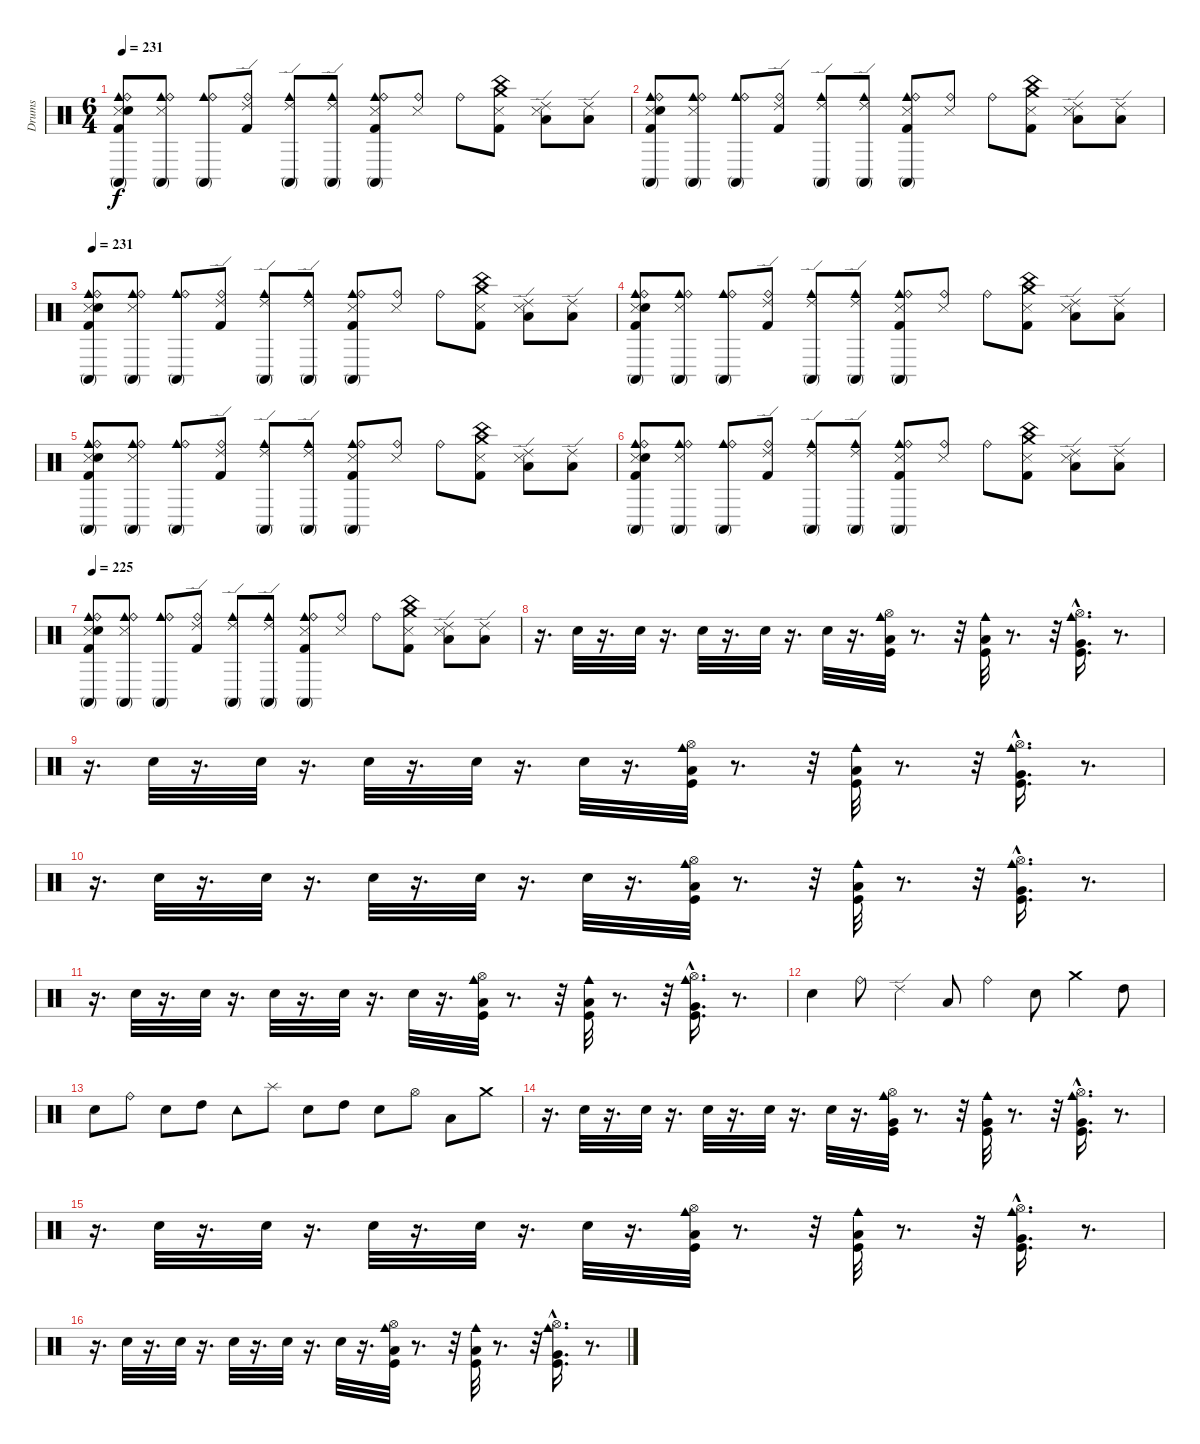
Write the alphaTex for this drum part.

\track ("Drums" "Drums") {instrument percussion}
\staff {score}
\articulation defaults
\ts (6 4)
\tempo 231
\clef neutral
\ks c
("Conga high (mute)" "Kick (hit) 2" "Snare (side stick) 3" "Snare (hit) 2" "Cowbell medium (hit)" "Ride (bell)").8{dy f} ("Snare (side stick) 3" "Cowbell medium (hit)" "Conga high (mute)" "Ride (bell)").8 ("Cowbell medium (hit)" "Conga high (mute)" "Ride (bell)").8 ("Ride (edge) 2" "Kick (hit) 2" "Ride (bell)").8 ("Conga high (mute)" "Ride (edge) 2" "Cowbell medium (hit)").8 ("Cowbell medium (hit)" "Conga high (mute)" "Ride (edge) 2").8 ("Cowbell medium (hit)" "Conga high (mute)" "Kick (hit) 2" "Snare (side stick) 3" "Ride (bell)").8 ("Snare (side stick) 3" "Ride (bell)").8 "Ride (bell)".8 ("China (hit)" "Crash medium (hit)" "Kick (hit) 2" "Snare (side stick) 3").8 ("Ride (edge) 2" "Low Tom (hit)" "Snare (side stick) 3").8 ("Ride (edge) 2" "Low Tom (hit)").8 |
("Conga high (mute)" "Kick (hit) 2" "Snare (side stick) 3" "Snare (hit) 2" "Cowbell medium (hit)" "Ride (bell)").8 ("Snare (side stick) 3" "Cowbell medium (hit)" "Conga high (mute)" "Ride (bell)").8 ("Cowbell medium (hit)" "Conga high (mute)" "Ride (bell)").8 ("Ride (edge) 2" "Kick (hit) 2" "Ride (bell)").8 ("Conga high (mute)" "Ride (edge) 2" "Cowbell medium (hit)").8 ("Cowbell medium (hit)" "Conga high (mute)" "Ride (edge) 2").8 ("Cowbell medium (hit)" "Conga high (mute)" "Kick (hit) 2" "Snare (side stick) 3" "Ride (bell)").8 ("Snare (side stick) 3" "Ride (bell)").8 "Ride (bell)".8 ("China (hit)" "Crash medium (hit)" "Kick (hit) 2" "Snare (side stick) 3").8 ("Ride (edge) 2" "Low Tom (hit)" "Snare (side stick) 3").8 ("Ride (edge) 2" "Low Tom (hit)").8 |
\tempo 231
("Conga high (mute)" "Kick (hit) 2" "Snare (side stick) 3" "Snare (hit) 2" "Cowbell medium (hit)" "Ride (bell)").8 ("Snare (side stick) 3" "Cowbell medium (hit)" "Conga high (mute)" "Ride (bell)").8 ("Cowbell medium (hit)" "Conga high (mute)" "Ride (bell)").8 ("Ride (edge) 2" "Kick (hit) 2" "Ride (bell)").8 ("Conga high (mute)" "Ride (edge) 2" "Cowbell medium (hit)").8 ("Cowbell medium (hit)" "Conga high (mute)" "Ride (edge) 2").8 ("Cowbell medium (hit)" "Conga high (mute)" "Kick (hit) 2" "Snare (side stick) 3" "Ride (bell)").8 ("Snare (side stick) 3" "Ride (bell)").8 "Ride (bell)".8 ("China (hit)" "Crash medium (hit)" "Kick (hit) 2" "Snare (side stick) 3").8 ("Ride (edge) 2" "Low Tom (hit)" "Snare (side stick) 3").8 ("Ride (edge) 2" "Low Tom (hit)").8 |
("Conga high (mute)" "Kick (hit) 2" "Snare (side stick) 3" "Snare (hit) 2" "Cowbell medium (hit)" "Ride (bell)").8 ("Snare (side stick) 3" "Cowbell medium (hit)" "Conga high (mute)" "Ride (bell)").8 ("Cowbell medium (hit)" "Conga high (mute)" "Ride (bell)").8 ("Ride (edge) 2" "Kick (hit) 2" "Ride (bell)").8 ("Conga high (mute)" "Ride (edge) 2" "Cowbell medium (hit)").8 ("Cowbell medium (hit)" "Conga high (mute)" "Ride (edge) 2").8 ("Cowbell medium (hit)" "Conga high (mute)" "Kick (hit) 2" "Snare (side stick) 3" "Ride (bell)").8 ("Snare (side stick) 3" "Ride (bell)").8 "Ride (bell)".8 ("China (hit)" "Crash medium (hit)" "Kick (hit) 2" "Snare (side stick) 3").8 ("Ride (edge) 2" "Low Tom (hit)" "Snare (side stick) 3").8 ("Ride (edge) 2" "Low Tom (hit)").8 |
("Conga high (mute)" "Kick (hit) 2" "Snare (side stick) 3" "Snare (hit) 2" "Cowbell medium (hit)" "Ride (bell)").8 ("Snare (side stick) 3" "Cowbell medium (hit)" "Conga high (mute)" "Ride (bell)").8 ("Cowbell medium (hit)" "Conga high (mute)" "Ride (bell)").8 ("Ride (edge) 2" "Kick (hit) 2" "Ride (bell)").8 ("Conga high (mute)" "Ride (edge) 2" "Cowbell medium (hit)").8 ("Cowbell medium (hit)" "Conga high (mute)" "Ride (edge) 2").8 ("Cowbell medium (hit)" "Conga high (mute)" "Kick (hit) 2" "Snare (side stick) 3" "Ride (bell)").8 ("Snare (side stick) 3" "Ride (bell)").8 "Ride (bell)".8 ("China (hit)" "Crash medium (hit)" "Kick (hit) 2" "Snare (side stick) 3").8 ("Ride (edge) 2" "Low Tom (hit)" "Snare (side stick) 3").8 ("Ride (edge) 2" "Low Tom (hit)").8 |
("Conga high (mute)" "Kick (hit) 2" "Snare (side stick) 3" "Snare (hit) 2" "Cowbell medium (hit)" "Ride (bell)").8 ("Snare (side stick) 3" "Cowbell medium (hit)" "Conga high (mute)" "Ride (bell)").8 ("Cowbell medium (hit)" "Conga high (mute)" "Ride (bell)").8 ("Ride (edge) 2" "Kick (hit) 2" "Ride (bell)").8 ("Conga high (mute)" "Ride (edge) 2" "Cowbell medium (hit)").8 ("Cowbell medium (hit)" "Conga high (mute)" "Ride (edge) 2").8 ("Cowbell medium (hit)" "Conga high (mute)" "Kick (hit) 2" "Snare (side stick) 3" "Ride (bell)").8 ("Snare (side stick) 3" "Ride (bell)").8 "Ride (bell)".8 ("China (hit)" "Crash medium (hit)" "Kick (hit) 2" "Snare (side stick) 3").8 ("Ride (edge) 2" "Low Tom (hit)" "Snare (side stick) 3").8 ("Ride (edge) 2" "Low Tom (hit)").8 |
\tempo 225
("Conga high (mute)" "Kick (hit) 2" "Snare (side stick) 3" "Snare (hit) 2" "Cowbell medium (hit)" "Ride (bell)").8 ("Snare (side stick) 3" "Cowbell medium (hit)" "Conga high (mute)" "Ride (bell)").8 ("Cowbell medium (hit)" "Conga high (mute)" "Ride (bell)").8 ("Ride (edge) 2" "Kick (hit) 2" "Ride (bell)").8 ("Conga high (mute)" "Ride (edge) 2" "Cowbell medium (hit)").8 ("Cowbell medium (hit)" "Conga high (mute)" "Ride (edge) 2").8 ("Cowbell medium (hit)" "Conga high (mute)" "Kick (hit) 2" "Snare (side stick) 3" "Ride (bell)").8 ("Snare (side stick) 3" "Ride (bell)").8 "Ride (bell)".8 ("China (hit)" "Crash medium (hit)" "Kick (hit) 2" "Snare (side stick) 3").8 ("Ride (edge) 2" "Low Tom (hit)" "Snare (side stick) 3").8 ("Ride (edge) 2" "Low Tom (hit)").8 |
r.16{d} "Snare (hit) 2".32 r.16{d} "Snare (hit) 2".32 r.16{d} "Snare (hit) 2".32 r.16{d} "Snare (hit) 2".32 r.16{d} "Snare (hit) 2".32 r.16{d} ("Kick (hit)" "Hi-Hat (open)" "Cowbell medium (hit)" "Low Floor Tom (hit)").32 r.8{d} r.32 ("Cowbell medium (hit)" "Kick (hit)" "Low Floor Tom (hit)").32 r.8{d} r.32 ("Hi-Hat (open)"{hac} "Kick (hit)" "Cowbell medium (hit)" "Very Low Tom (hit)").16{d} r.8{d} |
r.16{d} "Snare (hit) 2".32 r.16{d} "Snare (hit) 2".32 r.16{d} "Snare (hit) 2".32 r.16{d} "Snare (hit) 2".32 r.16{d} "Snare (hit) 2".32 r.16{d} ("Kick (hit)" "Hi-Hat (open)" "Cowbell medium (hit)" "Low Floor Tom (hit)").32 r.8{d} r.32 ("Cowbell medium (hit)" "Kick (hit)" "Low Floor Tom (hit)").32 r.8{d} r.32 ("Hi-Hat (open)"{hac} "Kick (hit)" "Cowbell medium (hit)" "Very Low Tom (hit)").16{d} r.8{d} |
r.16{d} "Snare (hit) 2".32 r.16{d} "Snare (hit) 2".32 r.16{d} "Snare (hit) 2".32 r.16{d} "Snare (hit) 2".32 r.16{d} "Snare (hit) 2".32 r.16{d} ("Kick (hit)" "Hi-Hat (open)" "Cowbell medium (hit)" "Low Floor Tom (hit)").32 r.8{d} r.32 ("Cowbell medium (hit)" "Kick (hit)" "Low Floor Tom (hit)").32 r.8{d} r.32 ("Hi-Hat (open)"{hac} "Kick (hit)" "Cowbell medium (hit)" "Very Low Tom (hit)").16{d} r.8{d} |
r.16{d} "Snare (hit) 2".32 r.16{d} "Snare (hit) 2".32 r.16{d} "Snare (hit) 2".32 r.16{d} "Snare (hit) 2".32 r.16{d} "Snare (hit) 2".32 r.16{d} ("Kick (hit)" "Hi-Hat (open)" "Cowbell medium (hit)" "Low Floor Tom (hit)").32 r.8{d} r.32 ("Cowbell medium (hit)" "Kick (hit)" "Low Floor Tom (hit)").32 r.8{d} r.32 ("Hi-Hat (open)"{hac} "Kick (hit)" "Cowbell medium (hit)" "Very Low Tom (hit)").16{d} r.8{d} |
"Electric Snare (hit)".4 "Ride (bell)".8 "Ride (edge) 2".4 "Low Tom (hit)".8 "Ride (bell)".4 "Electric Snare (hit)".8 "Crash medium (hit)".4 "High Tom (hit)".8 |
"Snare (hit) 2".8 "Ride (bell)".8 "Snare (hit) 2".8 "High Tom (hit)".8 "Tambourine (hit)".8 "Splash (hit)".8 "Snare (hit) 2".8 "High Tom (hit)".8 "Snare (hit) 2".8 "Hi-Hat (open)".8 "Low Tom (hit)".8 "Crash medium (hit)".8 |
r.16{d} "Snare (hit) 2".32 r.16{d} "Snare (hit) 2".32 r.16{d} "Snare (hit) 2".32 r.16{d} "Snare (hit) 2".32 r.16{d} "Electric Snare (hit)".32 r.16{d} ("Very Low Tom (hit)" "Kick (hit)" "Hi-Hat (open)" "Cowbell medium (hit)").32 r.8{d} r.32 ("Cowbell medium (hit)" "Very Low Tom (hit)" "Kick (hit)").32 r.8{d} r.32 ("Very Low Tom (hit)"{hac} "Hi-Hat (open)"{hac} "Kick (hit)" "Cowbell medium (hit)").16{d} r.8{d} |
r.16{d} "Snare (hit) 2".32 r.16{d} "Snare (hit) 2".32 r.16{d} "Snare (hit) 2".32 r.16{d} "Snare (hit) 2".32 r.16{d} "Snare (hit) 2".32 r.16{d} ("Kick (hit)" "Hi-Hat (open)" "Cowbell medium (hit)" "Low Floor Tom (hit)").32 r.8{d} r.32 ("Cowbell medium (hit)" "Kick (hit)" "Low Floor Tom (hit)").32 r.8{d} r.32 ("Hi-Hat (open)"{hac} "Kick (hit)" "Cowbell medium (hit)" "Very Low Tom (hit)").16{d} r.8{d} |
r.16{d} "Snare (hit) 2".32 r.16{d} "Snare (hit) 2".32 r.16{d} "Snare (hit) 2".32 r.16{d} "Snare (hit) 2".32 r.16{d} "Snare (hit) 2".32 r.16{d} ("Kick (hit)" "Hi-Hat (open)" "Cowbell medium (hit)" "Low Floor Tom (hit)").32 r.8{d} r.32 ("Cowbell medium (hit)" "Kick (hit)" "Low Floor Tom (hit)").32 r.8{d} r.32 ("Hi-Hat (open)"{hac} "Kick (hit)" "Cowbell medium (hit)" "Very Low Tom (hit)").16{d} r.8{d}
